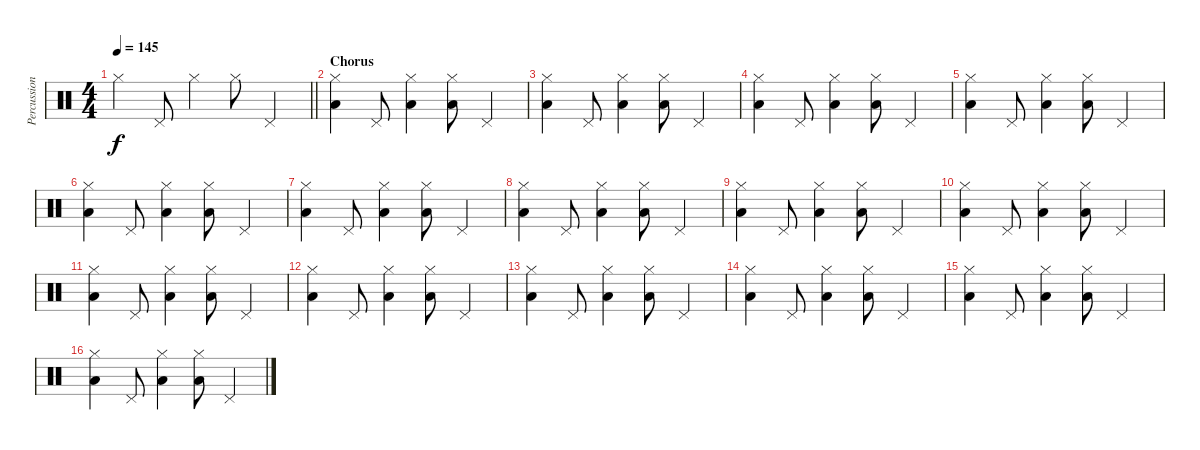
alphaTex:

\track ("Percussion" "Percussion") {instrument percussion}
\staff {score}
\articulation defaults
\ts (4 4)
\tempo 145
\clef neutral
\barLineRight lightlight
\ks c "Hi-Hat (closed)".4{dy f} "Pedal Hi-Hat (hit)".8 "Hi-Hat (closed)".4 "Hi-Hat (closed)".8 "Pedal Hi-Hat (hit)".4
|
\section ("" "Chorus")
("Hi-Hat (closed)" "Low Floor Tom (hit)").4 "Pedal Hi-Hat (hit)".8 ("Hi-Hat (closed)" "Low Floor Tom (hit)").4 ("Hi-Hat (closed)" "Low Floor Tom (hit)").8 "Pedal Hi-Hat (hit)".4 |
("Hi-Hat (closed)" "Low Floor Tom (hit)").4 "Pedal Hi-Hat (hit)".8 ("Hi-Hat (closed)" "Low Floor Tom (hit)").4 ("Hi-Hat (closed)" "Low Floor Tom (hit)").8 "Pedal Hi-Hat (hit)".4 |
("Hi-Hat (closed)" "Low Floor Tom (hit)").4 "Pedal Hi-Hat (hit)".8 ("Hi-Hat (closed)" "Low Floor Tom (hit)").4 ("Hi-Hat (closed)" "Low Floor Tom (hit)").8 "Pedal Hi-Hat (hit)".4 |
("Hi-Hat (closed)" "Low Floor Tom (hit)").4 "Pedal Hi-Hat (hit)".8 ("Hi-Hat (closed)" "Low Floor Tom (hit)").4 ("Hi-Hat (closed)" "Low Floor Tom (hit)").8 "Pedal Hi-Hat (hit)".4 |
("Hi-Hat (closed)" "Low Floor Tom (hit)").4 "Pedal Hi-Hat (hit)".8 ("Hi-Hat (closed)" "Low Floor Tom (hit)").4 ("Hi-Hat (closed)" "Low Floor Tom (hit)").8 "Pedal Hi-Hat (hit)".4 |
("Hi-Hat (closed)" "Low Floor Tom (hit)").4 "Pedal Hi-Hat (hit)".8 ("Hi-Hat (closed)" "Low Floor Tom (hit)").4 ("Hi-Hat (closed)" "Low Floor Tom (hit)").8 "Pedal Hi-Hat (hit)".4 |
("Hi-Hat (closed)" "Low Floor Tom (hit)").4 "Pedal Hi-Hat (hit)".8 ("Hi-Hat (closed)" "Low Floor Tom (hit)").4 ("Hi-Hat (closed)" "Low Floor Tom (hit)").8 "Pedal Hi-Hat (hit)".4 |
("Hi-Hat (closed)" "Low Floor Tom (hit)").4 "Pedal Hi-Hat (hit)".8 ("Hi-Hat (closed)" "Low Floor Tom (hit)").4 ("Hi-Hat (closed)" "Low Floor Tom (hit)").8 "Pedal Hi-Hat (hit)".4 |
("Hi-Hat (closed)" "Low Floor Tom (hit)").4 "Pedal Hi-Hat (hit)".8 ("Hi-Hat (closed)" "Low Floor Tom (hit)").4 ("Hi-Hat (closed)" "Low Floor Tom (hit)").8 "Pedal Hi-Hat (hit)".4 |
("Hi-Hat (closed)" "Low Floor Tom (hit)").4 "Pedal Hi-Hat (hit)".8 ("Hi-Hat (closed)" "Low Floor Tom (hit)").4 ("Hi-Hat (closed)" "Low Floor Tom (hit)").8 "Pedal Hi-Hat (hit)".4 |
("Hi-Hat (closed)" "Low Floor Tom (hit)").4 "Pedal Hi-Hat (hit)".8 ("Hi-Hat (closed)" "Low Floor Tom (hit)").4 ("Hi-Hat (closed)" "Low Floor Tom (hit)").8 "Pedal Hi-Hat (hit)".4 |
("Hi-Hat (closed)" "Low Floor Tom (hit)").4 "Pedal Hi-Hat (hit)".8 ("Hi-Hat (closed)" "Low Floor Tom (hit)").4 ("Hi-Hat (closed)" "Low Floor Tom (hit)").8 "Pedal Hi-Hat (hit)".4 |
("Hi-Hat (closed)" "Low Floor Tom (hit)").4 "Pedal Hi-Hat (hit)".8 ("Hi-Hat (closed)" "Low Floor Tom (hit)").4 ("Hi-Hat (closed)" "Low Floor Tom (hit)").8 "Pedal Hi-Hat (hit)".4 |
("Hi-Hat (closed)" "Low Floor Tom (hit)").4 "Pedal Hi-Hat (hit)".8 ("Hi-Hat (closed)" "Low Floor Tom (hit)").4 ("Hi-Hat (closed)" "Low Floor Tom (hit)").8 "Pedal Hi-Hat (hit)".4 |
("Hi-Hat (closed)" "Low Floor Tom (hit)").4 "Pedal Hi-Hat (hit)".8 ("Hi-Hat (closed)" "Low Floor Tom (hit)").4 ("Hi-Hat (closed)" "Low Floor Tom (hit)").8 "Pedal Hi-Hat (hit)".4
